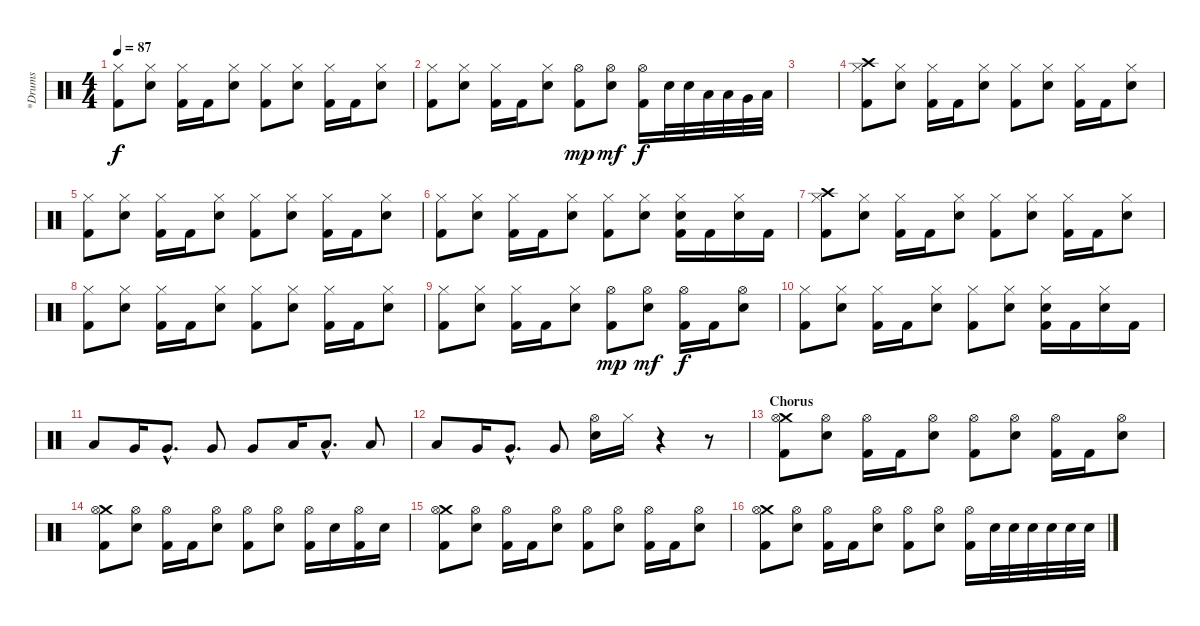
\track ("*Drums" "*Drums") {instrument percussion}
\staff {score}
\articulation defaults
\ts (4 4)
\tempo 87
\clef neutral
\ks c
("Hi-Hat (closed)" "Kick (hit) 2").8{dy f} ("Hi-Hat (closed)" "Electric Snare (hit)").8 ("Hi-Hat (closed)" "Kick (hit) 2").16 "Kick (hit) 2".16 ("Hi-Hat (closed)" "Electric Snare (hit)").8 ("Hi-Hat (closed)" "Kick (hit) 2").8 ("Hi-Hat (closed)" "Electric Snare (hit)").8 ("Hi-Hat (closed)" "Kick (hit) 2").16 "Kick (hit) 2".16 ("Hi-Hat (closed)" "Electric Snare (hit)").8 |
("Hi-Hat (closed)" "Kick (hit) 2").8 ("Hi-Hat (closed)" "Electric Snare (hit)").8 ("Hi-Hat (closed)" "Kick (hit) 2").16 "Kick (hit) 2".16 ("Hi-Hat (closed)" "Electric Snare (hit)").8 ("Hi-Hat (open)" "Kick (hit) 2").8{dy mp} ("Hi-Hat (open)" "Electric Snare (hit)").8{dy mf} ("Hi-Hat (open)" "Kick (hit) 2").16{dy f} "Electric Snare (hit)".32 "Electric Snare (hit)".32 "Low Tom (hit)".32 "Low Tom (hit)".32 "Very Low Tom (hit)".32 "Low Floor Tom (hit)".32 |
|
("Crash high (hit)" "Hi-Hat (closed)" "Kick (hit) 2").8 ("Hi-Hat (closed)" "Electric Snare (hit)").8 ("Hi-Hat (closed)" "Kick (hit) 2").16 "Kick (hit) 2".16 ("Hi-Hat (closed)" "Electric Snare (hit)").8 ("Hi-Hat (closed)" "Kick (hit) 2").8 ("Hi-Hat (closed)" "Electric Snare (hit)").8 ("Hi-Hat (closed)" "Kick (hit) 2").16 "Kick (hit) 2".16 ("Hi-Hat (closed)" "Electric Snare (hit)").8 |
("Hi-Hat (closed)" "Kick (hit) 2").8 ("Hi-Hat (closed)" "Electric Snare (hit)").8 ("Hi-Hat (closed)" "Kick (hit) 2").16 "Kick (hit) 2".16 ("Hi-Hat (closed)" "Electric Snare (hit)").8 ("Hi-Hat (closed)" "Kick (hit) 2").8 ("Hi-Hat (closed)" "Electric Snare (hit)").8 ("Hi-Hat (closed)" "Kick (hit) 2").16 "Kick (hit) 2".16 ("Hi-Hat (closed)" "Electric Snare (hit)").8 |
("Hi-Hat (closed)" "Kick (hit) 2").8 ("Hi-Hat (closed)" "Electric Snare (hit)").8 ("Hi-Hat (closed)" "Kick (hit) 2").16 "Kick (hit) 2".16 ("Hi-Hat (closed)" "Electric Snare (hit)").8 ("Hi-Hat (closed)" "Kick (hit) 2").8 ("Hi-Hat (closed)" "Electric Snare (hit)").8 ("Hi-Hat (closed)" "Electric Snare (hit)" "Kick (hit) 2").16 "Kick (hit) 2".16 ("Hi-Hat (closed)" "Electric Snare (hit)").16 "Kick (hit) 2".16 |
("Crash high (hit)" "Hi-Hat (closed)" "Kick (hit) 2").8 ("Hi-Hat (closed)" "Electric Snare (hit)").8 ("Hi-Hat (closed)" "Kick (hit) 2").16 "Kick (hit) 2".16 ("Hi-Hat (closed)" "Electric Snare (hit)").8 ("Hi-Hat (closed)" "Kick (hit) 2").8 ("Hi-Hat (closed)" "Electric Snare (hit)").8 ("Hi-Hat (closed)" "Kick (hit) 2").16 "Kick (hit) 2".16 ("Hi-Hat (closed)" "Electric Snare (hit)").8 |
("Hi-Hat (closed)" "Kick (hit) 2").8 ("Hi-Hat (closed)" "Electric Snare (hit)").8 ("Hi-Hat (closed)" "Kick (hit) 2").16 "Kick (hit) 2".16 ("Hi-Hat (closed)" "Electric Snare (hit)").8 ("Hi-Hat (closed)" "Kick (hit) 2").8 ("Hi-Hat (closed)" "Electric Snare (hit)").8 ("Hi-Hat (closed)" "Kick (hit) 2").16 "Kick (hit) 2".16 ("Hi-Hat (closed)" "Electric Snare (hit)").8 |
("Hi-Hat (closed)" "Kick (hit) 2").8 ("Hi-Hat (closed)" "Electric Snare (hit)").8 ("Hi-Hat (closed)" "Kick (hit) 2").16 "Kick (hit) 2".16 ("Hi-Hat (closed)" "Electric Snare (hit)").8 ("Hi-Hat (open)" "Kick (hit) 2").8{dy mp} ("Hi-Hat (open)" "Electric Snare (hit)").8{dy mf} ("Hi-Hat (open)" "Kick (hit) 2").16{dy f} "Kick (hit) 2".16 ("Hi-Hat (open)" "Electric Snare (hit)").8 |
("Hi-Hat (closed)" "Kick (hit) 2").8 ("Hi-Hat (closed)" "Electric Snare (hit)").8 ("Hi-Hat (closed)" "Kick (hit) 2").16 "Kick (hit) 2".16 ("Hi-Hat (closed)" "Electric Snare (hit)").8 ("Hi-Hat (closed)" "Kick (hit) 2").8 ("Hi-Hat (closed)" "Electric Snare (hit)").8 ("Hi-Hat (closed)" "Electric Snare (hit)" "Kick (hit) 2").16 "Kick (hit) 2".16 ("Hi-Hat (closed)" "Electric Snare (hit)").16 "Kick (hit) 2".16 |
"Low Tom (hit)".8 "Very Low Tom (hit)".16 "Very Low Tom (hit)"{hac}.8{d} "Very Low Tom (hit)".8 "Very Low Tom (hit)".8 "Low Floor Tom (hit)".16 "Low Floor Tom (hit)"{hac}.8{d} "Low Floor Tom (hit)".8 |
"Low Tom (hit)".8 "Very Low Tom (hit)".16 "Very Low Tom (hit)"{hac}.8{d} "Very Low Tom (hit)".8 ("Hi-Hat (open)" "Electric Snare (hit)").16 "Hi-Hat (closed)".16 r.4 r.8 |
\section ("" "Chorus")
("Crash medium (hit)" "Hi-Hat (open)" "Kick (hit) 2").8 ("Hi-Hat (open)" "Electric Snare (hit)").8 ("Hi-Hat (open)" "Kick (hit) 2").16 "Kick (hit) 2".16 ("Hi-Hat (open)" "Electric Snare (hit)").8 ("Hi-Hat (open)" "Kick (hit) 2").8 ("Hi-Hat (open)" "Electric Snare (hit)").8 ("Hi-Hat (open)" "Kick (hit) 2").16 "Kick (hit) 2".16 ("Hi-Hat (open)" "Electric Snare (hit)").8 |
("Crash medium (hit)" "Hi-Hat (open)" "Kick (hit) 2").8 ("Hi-Hat (open)" "Electric Snare (hit)").8 ("Hi-Hat (open)" "Kick (hit) 2").16 "Kick (hit) 2".16 ("Hi-Hat (open)" "Electric Snare (hit)").8 ("Hi-Hat (open)" "Kick (hit) 2").8 ("Hi-Hat (open)" "Electric Snare (hit)").8 ("Hi-Hat (open)" "Kick (hit) 2").16 "Electric Snare (hit)".16 ("Hi-Hat (open)" "Kick (hit) 2").16 "Electric Snare (hit)".16 |
("Crash medium (hit)" "Hi-Hat (open)" "Kick (hit) 2").8 ("Hi-Hat (open)" "Electric Snare (hit)").8 ("Hi-Hat (open)" "Kick (hit) 2").16 "Kick (hit) 2".16 ("Hi-Hat (open)" "Electric Snare (hit)").8 ("Hi-Hat (open)" "Kick (hit) 2").8 ("Hi-Hat (open)" "Electric Snare (hit)").8 ("Hi-Hat (open)" "Kick (hit) 2").16 "Kick (hit) 2".16 ("Hi-Hat (open)" "Electric Snare (hit)").8 |
("Crash medium (hit)" "Hi-Hat (open)" "Kick (hit) 2").8 ("Hi-Hat (open)" "Electric Snare (hit)").8 ("Hi-Hat (open)" "Kick (hit) 2").16 "Kick (hit) 2".16 ("Hi-Hat (open)" "Electric Snare (hit)").8 ("Hi-Hat (open)" "Kick (hit) 2").8 ("Hi-Hat (open)" "Electric Snare (hit)").8 ("Hi-Hat (open)" "Kick (hit) 2").16 "Electric Snare (hit)".32 "Electric Snare (hit)".32 "Electric Snare (hit)".32 "Electric Snare (hit)".32 "Electric Snare (hit)".32 "Electric Snare (hit)".32
